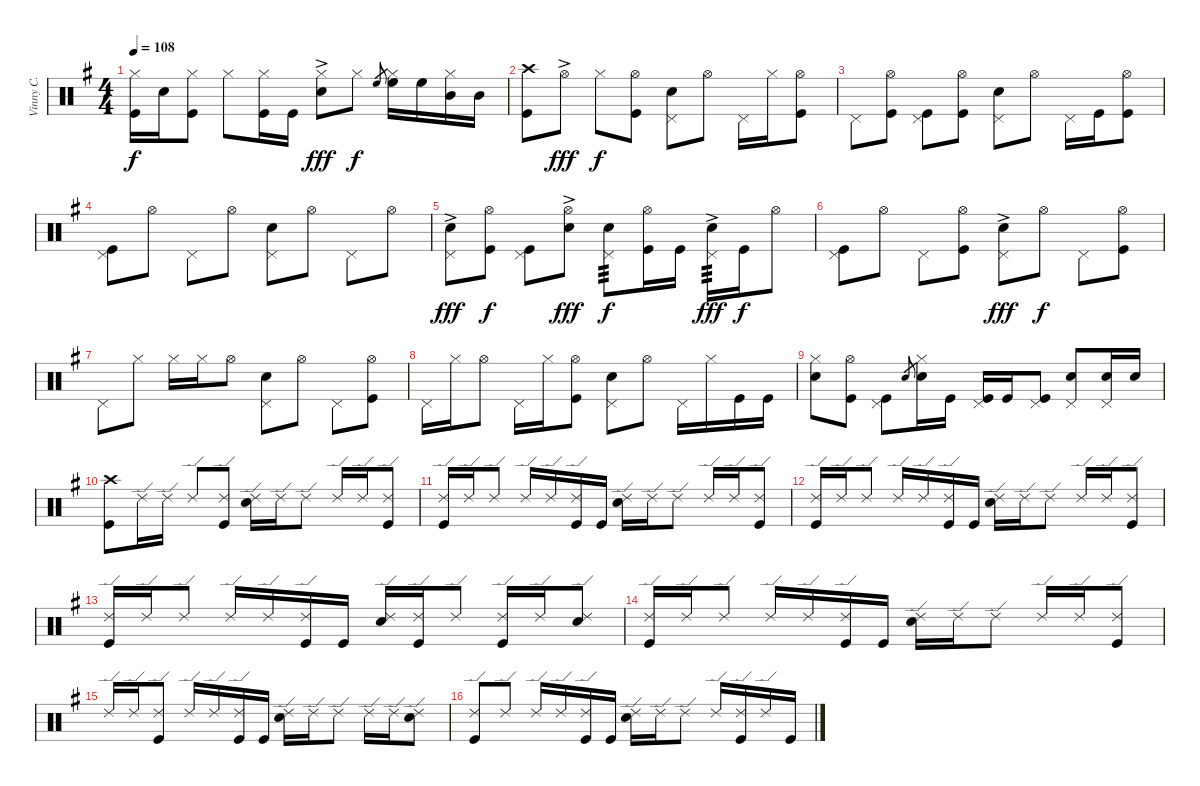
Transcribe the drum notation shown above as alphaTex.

\track ("Vinny C." "Vinny C.") {instrument percussion}
\staff {score}
\articulation defaults
\ts (4 4)
\tempo 108
\clef neutral
\ks g
("Hi-Hat (closed)" "Kick (hit)").16{dy f} "Electric Snare (hit)".16 ("Hi-Hat (closed)" "Kick (hit)").8 "Hi-Hat (closed)".8 ("Hi-Hat (closed)" "Kick (hit)").16 "Kick (hit)".16 ("Hi-Hat (closed)" "Electric Snare (hit)"{ac}).8{dy fff} "Hi-Hat (closed)".8{dy f} "High Floor Tom (hit)".8{gr} ("Hi-Hat (closed)" "High Floor Tom (hit)").16 "High Floor Tom (hit)".16 ("Hi-Hat (closed)" "Mid Tom (hit)").16 "Mid Tom (hit)".16 |
("Crash high (hit)" "Kick (hit)").8 "Hi-Hat (open)"{ac}.8{dy fff} "Hi-Hat (closed)".8{dy f} ("Hi-Hat (open)" "Kick (hit)").8 ("Pedal Hi-Hat (hit)" "Electric Snare (hit)").8 "Hi-Hat (open)".8 "Pedal Hi-Hat (hit)".16 "Hi-Hat (closed)".16 ("Hi-Hat (open)" "Kick (hit)").8 |
"Pedal Hi-Hat (hit)".8 ("Hi-Hat (open)" "Kick (hit)").8 ("Pedal Hi-Hat (hit)" "Kick (hit)").8 ("Hi-Hat (open)" "Kick (hit)").8 ("Pedal Hi-Hat (hit)" "Electric Snare (hit)").8 "Hi-Hat (open)".8 "Pedal Hi-Hat (hit)".16 "Kick (hit)".16 ("Hi-Hat (open)" "Kick (hit)").8 |
("Pedal Hi-Hat (hit)" "Kick (hit)").8 "Hi-Hat (open)".8 "Pedal Hi-Hat (hit)".8 "Hi-Hat (open)".8 ("Pedal Hi-Hat (hit)" "Electric Snare (hit)").8 "Hi-Hat (open)".8 "Pedal Hi-Hat (hit)".8 "Hi-Hat (open)".8 |
("Pedal Hi-Hat (hit)" "Electric Snare (hit)"{ac}).8{dy fff} ("Hi-Hat (open)" "Kick (hit)").8{dy f} ("Pedal Hi-Hat (hit)" "Kick (hit)").8 ("Hi-Hat (open)" "Electric Snare (hit)"{ac}).8{dy fff} ("Pedal Hi-Hat (hit)" "Electric Snare (hit)").8{tp 3 dy f} ("Hi-Hat (open)" "Kick (hit)").16 "Kick (hit)".16 ("Pedal Hi-Hat (hit)" "Electric Snare (hit)"{ac}).16{tp 3 dy fff} "Kick (hit)".16{dy f} "Hi-Hat (open)".8 |
("Pedal Hi-Hat (hit)" "Kick (hit)").8 "Hi-Hat (open)".8 "Pedal Hi-Hat (hit)".8 ("Hi-Hat (open)" "Kick (hit)").8 ("Pedal Hi-Hat (hit)" "Electric Snare (hit)"{ac}).8{dy fff} "Hi-Hat (open)".8{dy f} "Pedal Hi-Hat (hit)".8 ("Hi-Hat (open)" "Kick (hit)").8 |
"Pedal Hi-Hat (hit)".8 "Hi-Hat (closed)".8 "Hi-Hat (closed)".16 "Hi-Hat (closed)".16 "Hi-Hat (open)".8 ("Pedal Hi-Hat (hit)" "Electric Snare (hit)").8 "Hi-Hat (open)".8 "Pedal Hi-Hat (hit)".8 ("Hi-Hat (open)" "Kick (hit)").8 |
"Pedal Hi-Hat (hit)".16 "Hi-Hat (closed)".16 "Hi-Hat (open)".8 "Pedal Hi-Hat (hit)".16 "Hi-Hat (closed)".16 ("Hi-Hat (open)" "Kick (hit)").8 ("Pedal Hi-Hat (hit)" "Electric Snare (hit)").8 "Hi-Hat (open)".8 "Pedal Hi-Hat (hit)".16 "Hi-Hat (closed)".16 "Kick (hit)".16 "Kick (hit)".16 |
("Hi-Hat (closed)" "Electric Snare (hit)").8 ("Hi-Hat (open)" "Kick (hit)").8 ("Pedal Hi-Hat (hit)" "Kick (hit)").8 "Electric Snare (hit)".8{gr} ("Hi-Hat (closed)" "Electric Snare (hit)").16 "Kick (hit)".16 ("Pedal Hi-Hat (hit)" "Kick (hit)").16 "Kick (hit)".16 ("Pedal Hi-Hat (hit)" "Kick (hit)").8 ("Pedal Hi-Hat (hit)" "Electric Snare (hit)").8 ("Pedal Hi-Hat (hit)" "Electric Snare (hit)").16 "Electric Snare (hit)".16 |
("Crash high (hit)" "Kick (hit)").8 "Ride (edge) 2".16 "Ride (edge) 2".16 "Ride (edge) 2".8 ("Ride (edge) 2" "Kick (hit)").8 ("Ride (edge) 2" "Electric Snare (hit)").16 "Ride (edge) 2".16 "Ride (edge) 2".8 "Ride (edge) 2".16 "Ride (edge) 2".16 ("Ride (edge) 2" "Kick (hit)").8 |
("Ride (edge) 2" "Kick (hit)").16 "Ride (edge) 2".16 "Ride (edge) 2".8 "Ride (edge) 2".16 "Ride (edge) 2".16 ("Ride (edge) 2" "Kick (hit)").16 "Kick (hit)".16 ("Ride (edge) 2" "Electric Snare (hit)").16 "Ride (edge) 2".16 "Ride (edge) 2".8 "Ride (edge) 2".16 "Ride (edge) 2".16 ("Ride (edge) 2" "Kick (hit)").8 |
("Ride (edge) 2" "Kick (hit)").16 "Ride (edge) 2".16 "Ride (edge) 2".8 "Ride (edge) 2".16 "Ride (edge) 2".16 ("Ride (edge) 2" "Kick (hit)").16 "Kick (hit)".16 ("Ride (edge) 2" "Electric Snare (hit)").16 "Ride (edge) 2".16 "Ride (edge) 2".8 "Ride (edge) 2".16 "Ride (edge) 2".16 ("Ride (edge) 2" "Kick (hit)").8 |
("Ride (edge) 2" "Kick (hit)").16 "Ride (edge) 2".16 "Ride (edge) 2".8 "Ride (edge) 2".16 "Ride (edge) 2".16 ("Ride (edge) 2" "Kick (hit)").16 "Kick (hit)".16 ("Ride (edge) 2" "Electric Snare (hit)").16 ("Ride (edge) 2" "Kick (hit)").16 "Ride (edge) 2".8 ("Ride (edge) 2" "Kick (hit)").16 "Ride (edge) 2".16 ("Ride (edge) 2" "Electric Snare (hit)").8 |
("Ride (edge) 2" "Kick (hit)").16 "Ride (edge) 2".16 "Ride (edge) 2".8 "Ride (edge) 2".16 "Ride (edge) 2".16 ("Ride (edge) 2" "Kick (hit)").16 "Kick (hit)".16 ("Ride (edge) 2" "Electric Snare (hit)").16 "Ride (edge) 2".16 "Ride (edge) 2".8 "Ride (edge) 2".16 "Ride (edge) 2".16 ("Ride (edge) 2" "Kick (hit)").8 |
"Ride (edge) 2".16 "Ride (edge) 2".16 ("Ride (edge) 2" "Kick (hit)").8 "Ride (edge) 2".16 "Ride (edge) 2".16 ("Ride (edge) 2" "Kick (hit)").16 "Kick (hit)".16 ("Ride (edge) 2" "Electric Snare (hit)").16 "Ride (edge) 2".16 "Ride (edge) 2".8 "Ride (edge) 2".16 "Ride (edge) 2".16 ("Ride (edge) 2" "Electric Snare (hit)").8 |
("Ride (edge) 2" "Kick (hit)").8 "Ride (edge) 2".8 "Ride (edge) 2".16 "Ride (edge) 2".16 ("Ride (edge) 2" "Kick (hit)").16 "Kick (hit)".16 ("Ride (edge) 2" "Electric Snare (hit)").16 "Ride (edge) 2".16 "Ride (edge) 2".8 "Ride (edge) 2".16 ("Ride (edge) 2" "Kick (hit)").16 "Ride (edge) 2".16 "Kick (hit)".16
